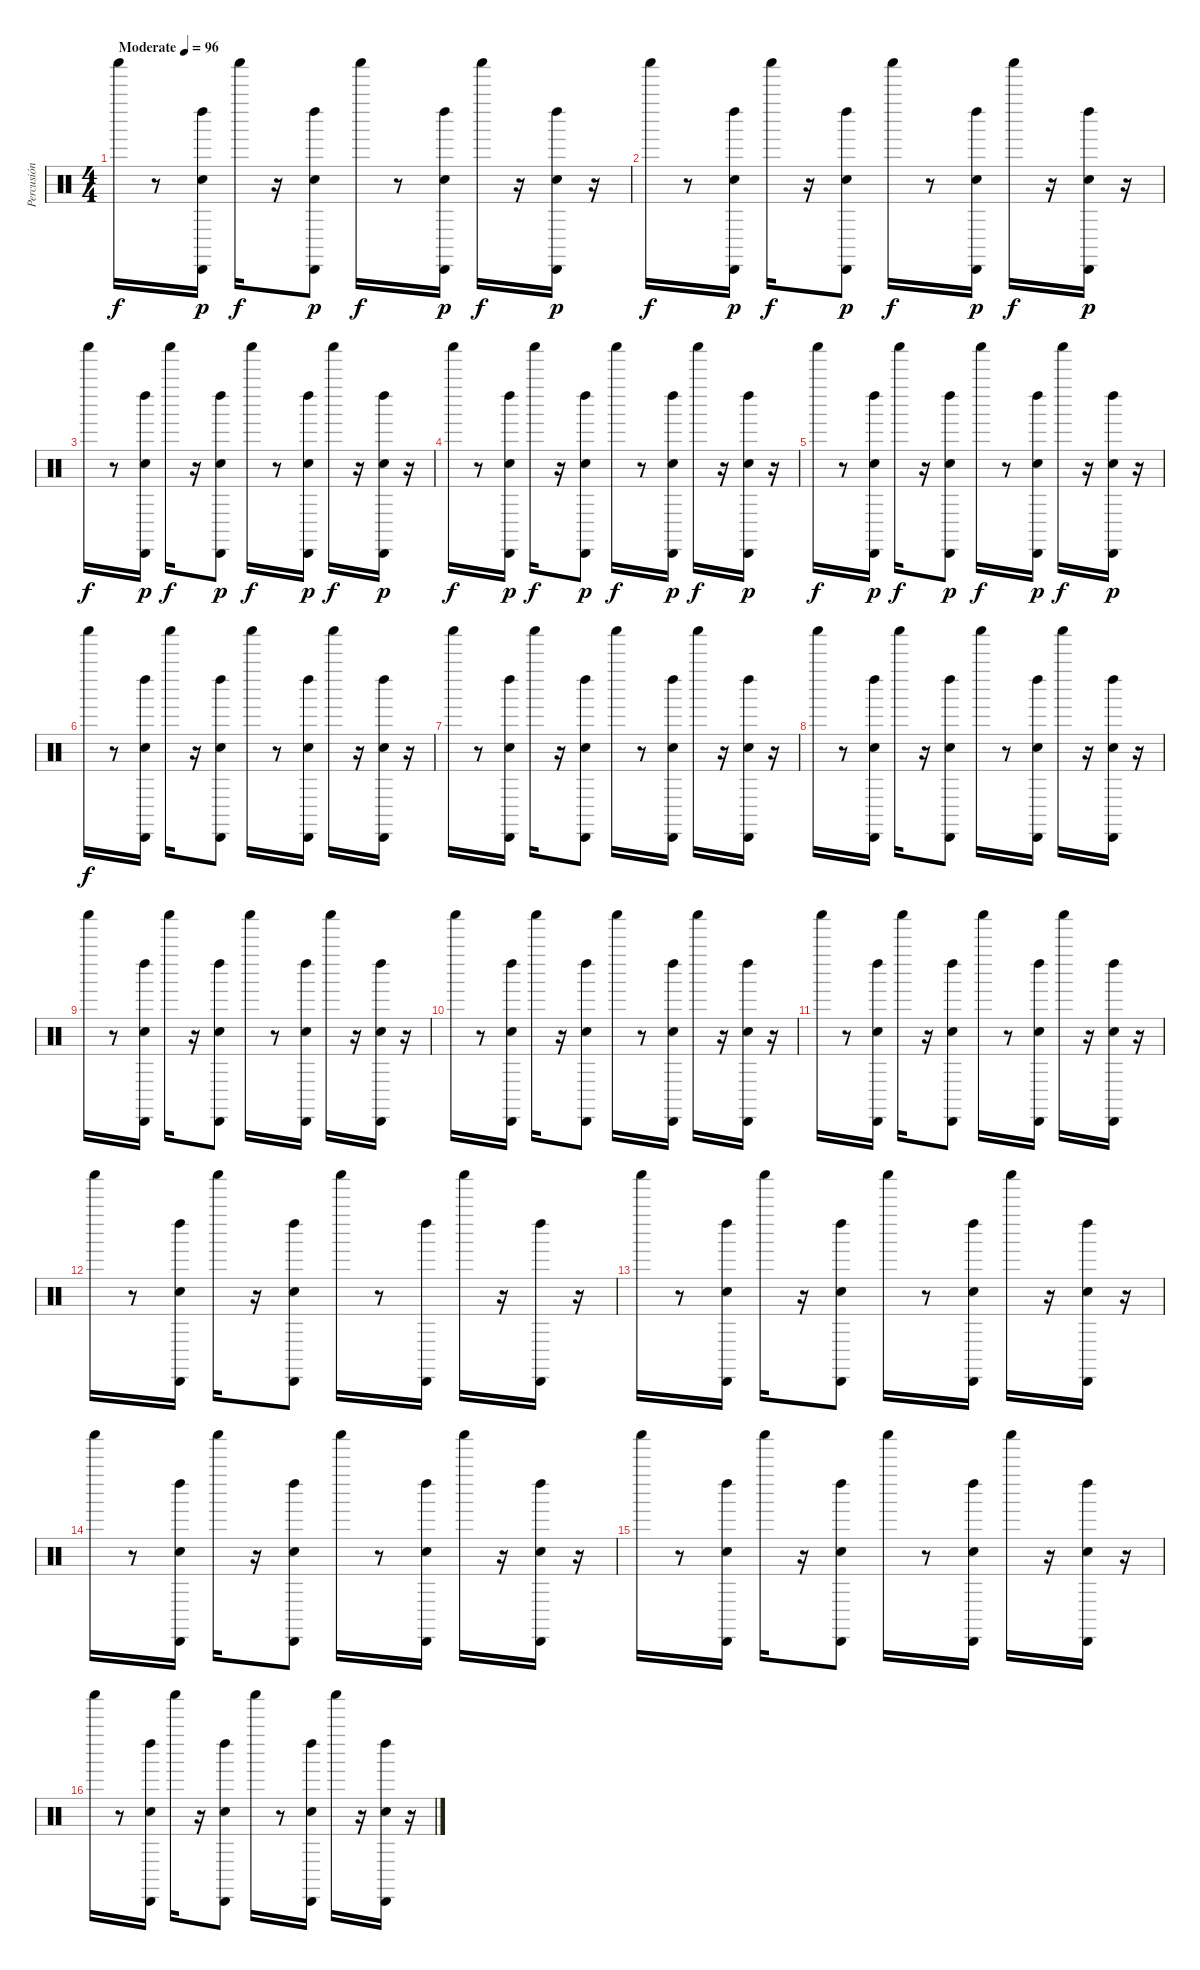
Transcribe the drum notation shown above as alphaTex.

\track ("Percusión" "Percusión") {instrument percussion}
\staff {score}
\articulation defaults
\ts (4 4)
\tempo (96 "Moderate")
\clef neutral
\ks c "Shaker (hit)".16{dy f}
r.8 ("Cabasa (hit)" "Left Maraca (hit)" "Hand Clap (hit)").16{dy p} "Shaker (hit)".16{dy f} r.16 ("Left Maraca (hit)" "Cabasa (hit)" "Hand Clap (hit)").8{dy p} "Shaker (hit)".16{dy f} r.8 ("Cabasa (hit)" "Left Maraca (hit)" "Hand Clap (hit)").16{dy p} "Shaker (hit)".16{dy f} r.16 ("Left Maraca (hit)" "Cabasa (hit)" "Hand Clap (hit)").16{dy p} r.16 |
"Shaker (hit)".16{dy f} r.8 ("Cabasa (hit)" "Left Maraca (hit)" "Hand Clap (hit)").16{dy p} "Shaker (hit)".16{dy f} r.16 ("Left Maraca (hit)" "Cabasa (hit)" "Hand Clap (hit)").8{dy p} "Shaker (hit)".16{dy f} r.8 ("Cabasa (hit)" "Left Maraca (hit)" "Hand Clap (hit)").16{dy p} "Shaker (hit)".16{dy f} r.16 ("Left Maraca (hit)" "Cabasa (hit)" "Hand Clap (hit)").16{dy p} r.16 |
"Shaker (hit)".16{dy f} r.8 ("Cabasa (hit)" "Left Maraca (hit)" "Hand Clap (hit)").16{dy p} "Shaker (hit)".16{dy f} r.16 ("Left Maraca (hit)" "Cabasa (hit)" "Hand Clap (hit)").8{dy p} "Shaker (hit)".16{dy f} r.8 ("Cabasa (hit)" "Left Maraca (hit)" "Hand Clap (hit)").16{dy p} "Shaker (hit)".16{dy f} r.16 ("Left Maraca (hit)" "Cabasa (hit)" "Hand Clap (hit)").16{dy p} r.16 |
"Shaker (hit)".16{dy f} r.8 ("Cabasa (hit)" "Left Maraca (hit)" "Hand Clap (hit)").16{dy p} "Shaker (hit)".16{dy f} r.16 ("Left Maraca (hit)" "Cabasa (hit)" "Hand Clap (hit)").8{dy p} "Shaker (hit)".16{dy f} r.8 ("Cabasa (hit)" "Left Maraca (hit)" "Hand Clap (hit)").16{dy p} "Shaker (hit)".16{dy f} r.16 ("Left Maraca (hit)" "Cabasa (hit)" "Hand Clap (hit)").16{dy p} r.16 |
"Shaker (hit)".16{dy f} r.8 ("Cabasa (hit)" "Left Maraca (hit)" "Hand Clap (hit)").16{dy p} "Shaker (hit)".16{dy f} r.16 ("Left Maraca (hit)" "Cabasa (hit)" "Hand Clap (hit)").8{dy p} "Shaker (hit)".16{dy f} r.8 ("Cabasa (hit)" "Left Maraca (hit)" "Hand Clap (hit)").16{dy p} "Shaker (hit)".16{dy f} r.16 ("Left Maraca (hit)" "Cabasa (hit)" "Hand Clap (hit)").16{dy p} r.16 |
"Shaker (hit)".16{dy f} r.8 ("Cabasa (hit)" "Left Maraca (hit)" "Hand Clap (hit)").16 "Shaker (hit)".16 r.16 ("Left Maraca (hit)" "Cabasa (hit)" "Hand Clap (hit)").8 "Shaker (hit)".16 r.8 ("Cabasa (hit)" "Left Maraca (hit)" "Hand Clap (hit)").16 "Shaker (hit)".16 r.16 ("Left Maraca (hit)" "Cabasa (hit)" "Hand Clap (hit)").16 r.16 |
"Shaker (hit)".16 r.8 ("Cabasa (hit)" "Left Maraca (hit)" "Hand Clap (hit)").16 "Shaker (hit)".16 r.16 ("Left Maraca (hit)" "Cabasa (hit)" "Hand Clap (hit)").8 "Shaker (hit)".16 r.8 ("Cabasa (hit)" "Left Maraca (hit)" "Hand Clap (hit)").16 "Shaker (hit)".16 r.16 ("Left Maraca (hit)" "Cabasa (hit)" "Hand Clap (hit)").16 r.16 |
"Shaker (hit)".16 r.8 ("Cabasa (hit)" "Left Maraca (hit)" "Hand Clap (hit)").16 "Shaker (hit)".16 r.16 ("Left Maraca (hit)" "Cabasa (hit)" "Hand Clap (hit)").8 "Shaker (hit)".16 r.8 ("Cabasa (hit)" "Left Maraca (hit)" "Hand Clap (hit)").16 "Shaker (hit)".16 r.16 ("Left Maraca (hit)" "Cabasa (hit)" "Hand Clap (hit)").16 r.16 |
"Shaker (hit)".16 r.8 ("Cabasa (hit)" "Left Maraca (hit)" "Hand Clap (hit)").16 "Shaker (hit)".16 r.16 ("Left Maraca (hit)" "Cabasa (hit)" "Hand Clap (hit)").8 "Shaker (hit)".16 r.8 ("Cabasa (hit)" "Left Maraca (hit)" "Hand Clap (hit)").16 "Shaker (hit)".16 r.16 ("Left Maraca (hit)" "Cabasa (hit)" "Hand Clap (hit)").16 r.16 |
"Shaker (hit)".16 r.8 ("Cabasa (hit)" "Left Maraca (hit)" "Hand Clap (hit)").16 "Shaker (hit)".16 r.16 ("Left Maraca (hit)" "Cabasa (hit)" "Hand Clap (hit)").8 "Shaker (hit)".16 r.8 ("Cabasa (hit)" "Left Maraca (hit)" "Hand Clap (hit)").16 "Shaker (hit)".16 r.16 ("Left Maraca (hit)" "Cabasa (hit)" "Hand Clap (hit)").16 r.16 |
"Shaker (hit)".16 r.8 ("Cabasa (hit)" "Left Maraca (hit)" "Hand Clap (hit)").16 "Shaker (hit)".16 r.16 ("Left Maraca (hit)" "Cabasa (hit)" "Hand Clap (hit)").8 "Shaker (hit)".16 r.8 ("Cabasa (hit)" "Left Maraca (hit)" "Hand Clap (hit)").16 "Shaker (hit)".16 r.16 ("Left Maraca (hit)" "Cabasa (hit)" "Hand Clap (hit)").16 r.16 |
"Shaker (hit)".16 r.8 ("Cabasa (hit)" "Left Maraca (hit)" "Hand Clap (hit)").16 "Shaker (hit)".16 r.16 ("Left Maraca (hit)" "Cabasa (hit)" "Hand Clap (hit)").8 "Shaker (hit)".16 r.8 ("Cabasa (hit)" "Left Maraca (hit)").16 "Shaker (hit)".16 r.16 ("Left Maraca (hit)" "Cabasa (hit)").16 r.16 |
"Shaker (hit)".16 r.8 ("Cabasa (hit)" "Left Maraca (hit)" "Hand Clap (hit)").16 "Shaker (hit)".16 r.16 ("Left Maraca (hit)" "Cabasa (hit)" "Hand Clap (hit)").8 "Shaker (hit)".16 r.8 ("Cabasa (hit)" "Left Maraca (hit)" "Hand Clap (hit)").16 "Shaker (hit)".16 r.16 ("Left Maraca (hit)" "Cabasa (hit)" "Hand Clap (hit)").16 r.16 |
"Shaker (hit)".16 r.8 ("Cabasa (hit)" "Left Maraca (hit)" "Hand Clap (hit)").16 "Shaker (hit)".16 r.16 ("Left Maraca (hit)" "Cabasa (hit)" "Hand Clap (hit)").8 "Shaker (hit)".16 r.8 ("Cabasa (hit)" "Left Maraca (hit)" "Hand Clap (hit)").16 "Shaker (hit)".16 r.16 ("Left Maraca (hit)" "Cabasa (hit)" "Hand Clap (hit)").16 r.16 |
"Shaker (hit)".16 r.8 ("Cabasa (hit)" "Left Maraca (hit)" "Hand Clap (hit)").16 "Shaker (hit)".16 r.16 ("Left Maraca (hit)" "Cabasa (hit)" "Hand Clap (hit)").8 "Shaker (hit)".16 r.8 ("Cabasa (hit)" "Left Maraca (hit)" "Hand Clap (hit)").16 "Shaker (hit)".16 r.16 ("Left Maraca (hit)" "Cabasa (hit)" "Hand Clap (hit)").16 r.16 |
"Shaker (hit)".16 r.8 ("Cabasa (hit)" "Left Maraca (hit)" "Hand Clap (hit)").16 "Shaker (hit)".16 r.16 ("Left Maraca (hit)" "Cabasa (hit)" "Hand Clap (hit)").8 "Shaker (hit)".16 r.8 ("Cabasa (hit)" "Left Maraca (hit)" "Hand Clap (hit)").16 "Shaker (hit)".16 r.16 ("Left Maraca (hit)" "Cabasa (hit)" "Hand Clap (hit)").16 r.16
